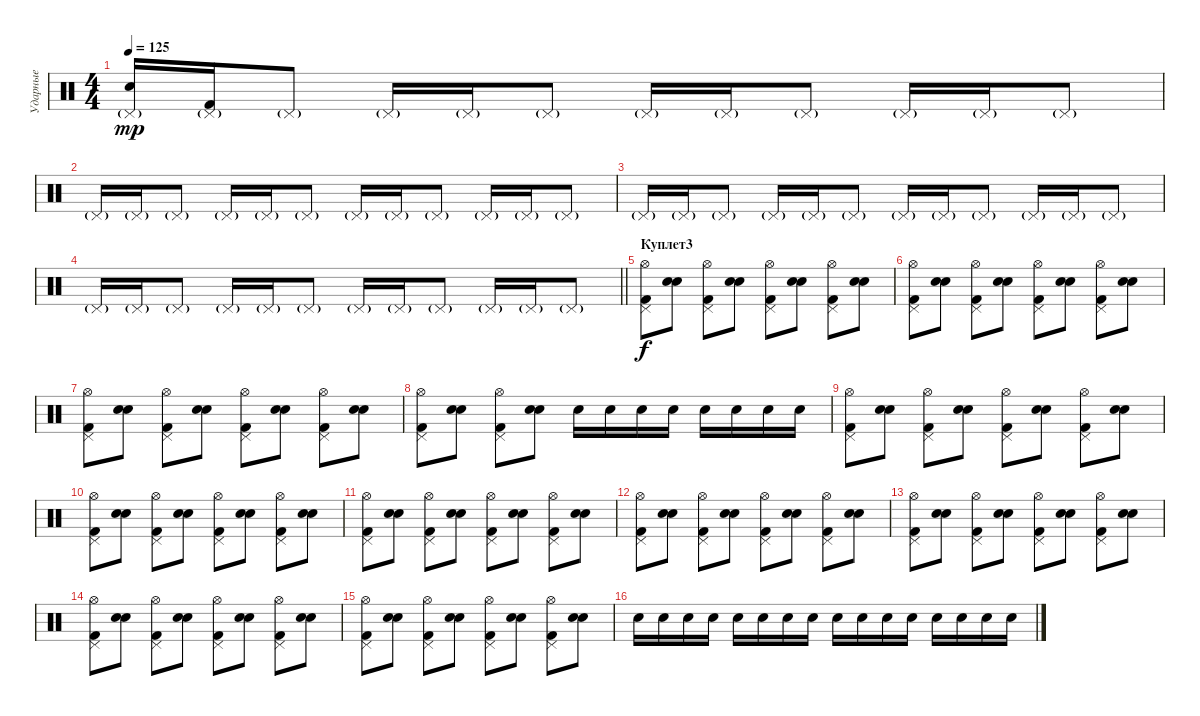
\track ("Ударные" "Ударные") {instrument percussion}
\staff {score}
\articulation defaults
\ts (4 4)
\tempo 125
\clef neutral
\ks c
("Electric Snare (hit)" "Pedal Hi-Hat (hit)"{g}).16{dy mp} ("Kick (hit) 2" "Pedal Hi-Hat (hit)"{g}).16 "Pedal Hi-Hat (hit)"{g}.8 "Pedal Hi-Hat (hit)"{g}.16 "Pedal Hi-Hat (hit)"{g}.16 "Pedal Hi-Hat (hit)"{g}.8 "Pedal Hi-Hat (hit)"{g}.16 "Pedal Hi-Hat (hit)"{g}.16 "Pedal Hi-Hat (hit)"{g}.8 "Pedal Hi-Hat (hit)"{g}.16 "Pedal Hi-Hat (hit)"{g}.16 "Pedal Hi-Hat (hit)"{g}.8 |
"Pedal Hi-Hat (hit)"{g}.16 "Pedal Hi-Hat (hit)"{g}.16 "Pedal Hi-Hat (hit)"{g}.8 "Pedal Hi-Hat (hit)"{g}.16 "Pedal Hi-Hat (hit)"{g}.16 "Pedal Hi-Hat (hit)"{g}.8 "Pedal Hi-Hat (hit)"{g}.16 "Pedal Hi-Hat (hit)"{g}.16 "Pedal Hi-Hat (hit)"{g}.8 "Pedal Hi-Hat (hit)"{g}.16 "Pedal Hi-Hat (hit)"{g}.16 "Pedal Hi-Hat (hit)"{g}.8 |
"Pedal Hi-Hat (hit)"{g}.16 "Pedal Hi-Hat (hit)"{g}.16 "Pedal Hi-Hat (hit)"{g}.8 "Pedal Hi-Hat (hit)"{g}.16 "Pedal Hi-Hat (hit)"{g}.16 "Pedal Hi-Hat (hit)"{g}.8 "Pedal Hi-Hat (hit)"{g}.16 "Pedal Hi-Hat (hit)"{g}.16 "Pedal Hi-Hat (hit)"{g}.8 "Pedal Hi-Hat (hit)"{g}.16 "Pedal Hi-Hat (hit)"{g}.16 "Pedal Hi-Hat (hit)"{g}.8 |
\barLineRight lightlight "Pedal Hi-Hat (hit)"{g}.16 "Pedal Hi-Hat (hit)"{g}.16 "Pedal Hi-Hat (hit)"{g}.8 "Pedal Hi-Hat (hit)"{g}.16 "Pedal Hi-Hat (hit)"{g}.16 "Pedal Hi-Hat (hit)"{g}.8 "Pedal Hi-Hat (hit)"{g}.16 "Pedal Hi-Hat (hit)"{g}.16 "Pedal Hi-Hat (hit)"{g}.8 "Pedal Hi-Hat (hit)"{g}.16 "Pedal Hi-Hat (hit)"{g}.16 "Pedal Hi-Hat (hit)"{g}.8
|
\section ("" "Куплет3")
("Hi-Hat (open)" "Pedal Hi-Hat (hit)" "Kick (hit) 2").8{dy f} ("Snare (hit) 2" "Electric Snare (hit)").8 ("Hi-Hat (open)" "Pedal Hi-Hat (hit)" "Kick (hit) 2").8 ("Snare (hit) 2" "Electric Snare (hit)").8 ("Hi-Hat (open)" "Pedal Hi-Hat (hit)" "Kick (hit) 2").8 ("Snare (hit) 2" "Electric Snare (hit)").8 ("Hi-Hat (open)" "Pedal Hi-Hat (hit)" "Kick (hit) 2").8 ("Snare (hit) 2" "Electric Snare (hit)").8 |
("Hi-Hat (open)" "Pedal Hi-Hat (hit)" "Kick (hit) 2").8 ("Snare (hit) 2" "Electric Snare (hit)").8 ("Hi-Hat (open)" "Pedal Hi-Hat (hit)" "Kick (hit) 2").8 ("Snare (hit) 2" "Electric Snare (hit)").8 ("Hi-Hat (open)" "Pedal Hi-Hat (hit)" "Kick (hit) 2").8 ("Snare (hit) 2" "Electric Snare (hit)").8 ("Hi-Hat (open)" "Pedal Hi-Hat (hit)" "Kick (hit) 2").8 ("Snare (hit) 2" "Electric Snare (hit)").8 |
("Hi-Hat (open)" "Pedal Hi-Hat (hit)" "Kick (hit) 2").8 ("Snare (hit) 2" "Electric Snare (hit)").8 ("Hi-Hat (open)" "Pedal Hi-Hat (hit)" "Kick (hit) 2").8 ("Snare (hit) 2" "Electric Snare (hit)").8 ("Hi-Hat (open)" "Pedal Hi-Hat (hit)" "Kick (hit) 2").8 ("Snare (hit) 2" "Electric Snare (hit)").8 ("Hi-Hat (open)" "Pedal Hi-Hat (hit)" "Kick (hit) 2").8 ("Snare (hit) 2" "Electric Snare (hit)").8 |
("Hi-Hat (open)" "Pedal Hi-Hat (hit)" "Kick (hit) 2").8 ("Snare (hit) 2" "Electric Snare (hit)").8 ("Hi-Hat (open)" "Pedal Hi-Hat (hit)" "Kick (hit) 2").8 ("Snare (hit) 2" "Electric Snare (hit)").8 "Electric Snare (hit)".16 "Electric Snare (hit)".16 "Electric Snare (hit)".16 "Electric Snare (hit)".16 "Electric Snare (hit)".16 "Electric Snare (hit)".16 "Electric Snare (hit)".16 "Electric Snare (hit)".16 |
("Hi-Hat (open)" "Pedal Hi-Hat (hit)" "Kick (hit) 2").8 ("Snare (hit) 2" "Electric Snare (hit)").8 ("Hi-Hat (open)" "Pedal Hi-Hat (hit)" "Kick (hit) 2").8 ("Snare (hit) 2" "Electric Snare (hit)").8 ("Hi-Hat (open)" "Pedal Hi-Hat (hit)" "Kick (hit) 2").8 ("Snare (hit) 2" "Electric Snare (hit)").8 ("Hi-Hat (open)" "Pedal Hi-Hat (hit)" "Kick (hit) 2").8 ("Snare (hit) 2" "Electric Snare (hit)").8 |
("Hi-Hat (open)" "Pedal Hi-Hat (hit)" "Kick (hit) 2").8 ("Snare (hit) 2" "Electric Snare (hit)").8 ("Hi-Hat (open)" "Pedal Hi-Hat (hit)" "Kick (hit) 2").8 ("Snare (hit) 2" "Electric Snare (hit)").8 ("Hi-Hat (open)" "Pedal Hi-Hat (hit)" "Kick (hit) 2").8 ("Snare (hit) 2" "Electric Snare (hit)").8 ("Hi-Hat (open)" "Pedal Hi-Hat (hit)" "Kick (hit) 2").8 ("Snare (hit) 2" "Electric Snare (hit)").8 |
("Hi-Hat (open)" "Pedal Hi-Hat (hit)" "Kick (hit) 2").8 ("Snare (hit) 2" "Electric Snare (hit)").8 ("Hi-Hat (open)" "Pedal Hi-Hat (hit)" "Kick (hit) 2").8 ("Snare (hit) 2" "Electric Snare (hit)").8 ("Hi-Hat (open)" "Pedal Hi-Hat (hit)" "Kick (hit) 2").8 ("Snare (hit) 2" "Electric Snare (hit)").8 ("Hi-Hat (open)" "Pedal Hi-Hat (hit)" "Kick (hit) 2").8 ("Snare (hit) 2" "Electric Snare (hit)").8 |
("Hi-Hat (open)" "Pedal Hi-Hat (hit)" "Kick (hit) 2").8 ("Snare (hit) 2" "Electric Snare (hit)").8 ("Hi-Hat (open)" "Pedal Hi-Hat (hit)" "Kick (hit) 2").8 ("Snare (hit) 2" "Electric Snare (hit)").8 ("Hi-Hat (open)" "Pedal Hi-Hat (hit)" "Kick (hit) 2").8 ("Snare (hit) 2" "Electric Snare (hit)").8 ("Hi-Hat (open)" "Pedal Hi-Hat (hit)" "Kick (hit) 2").8 ("Snare (hit) 2" "Electric Snare (hit)").8 |
("Hi-Hat (open)" "Pedal Hi-Hat (hit)" "Kick (hit) 2").8 ("Snare (hit) 2" "Electric Snare (hit)").8 ("Hi-Hat (open)" "Pedal Hi-Hat (hit)" "Kick (hit) 2").8 ("Snare (hit) 2" "Electric Snare (hit)").8 ("Hi-Hat (open)" "Pedal Hi-Hat (hit)" "Kick (hit) 2").8 ("Snare (hit) 2" "Electric Snare (hit)").8 ("Hi-Hat (open)" "Pedal Hi-Hat (hit)" "Kick (hit) 2").8 ("Snare (hit) 2" "Electric Snare (hit)").8 |
("Hi-Hat (open)" "Pedal Hi-Hat (hit)" "Kick (hit) 2").8 ("Snare (hit) 2" "Electric Snare (hit)").8 ("Hi-Hat (open)" "Pedal Hi-Hat (hit)" "Kick (hit) 2").8 ("Snare (hit) 2" "Electric Snare (hit)").8 ("Hi-Hat (open)" "Pedal Hi-Hat (hit)" "Kick (hit) 2").8 ("Snare (hit) 2" "Electric Snare (hit)").8 ("Hi-Hat (open)" "Pedal Hi-Hat (hit)" "Kick (hit) 2").8 ("Snare (hit) 2" "Electric Snare (hit)").8 |
("Hi-Hat (open)" "Pedal Hi-Hat (hit)" "Kick (hit) 2").8 ("Snare (hit) 2" "Electric Snare (hit)").8 ("Hi-Hat (open)" "Pedal Hi-Hat (hit)" "Kick (hit) 2").8 ("Snare (hit) 2" "Electric Snare (hit)").8 ("Hi-Hat (open)" "Pedal Hi-Hat (hit)" "Kick (hit) 2").8 ("Snare (hit) 2" "Electric Snare (hit)").8 ("Hi-Hat (open)" "Pedal Hi-Hat (hit)" "Kick (hit) 2").8 ("Snare (hit) 2" "Electric Snare (hit)").8 |
"Electric Snare (hit)".16 "Electric Snare (hit)".16 "Electric Snare (hit)".16 "Electric Snare (hit)".16 "Electric Snare (hit)".16 "Electric Snare (hit)".16 "Electric Snare (hit)".16 "Electric Snare (hit)".16 "Electric Snare (hit)".16 "Electric Snare (hit)".16 "Electric Snare (hit)".16 "Electric Snare (hit)".16 "Electric Snare (hit)".16 "Electric Snare (hit)".16 "Electric Snare (hit)".16 "Electric Snare (hit)".16
